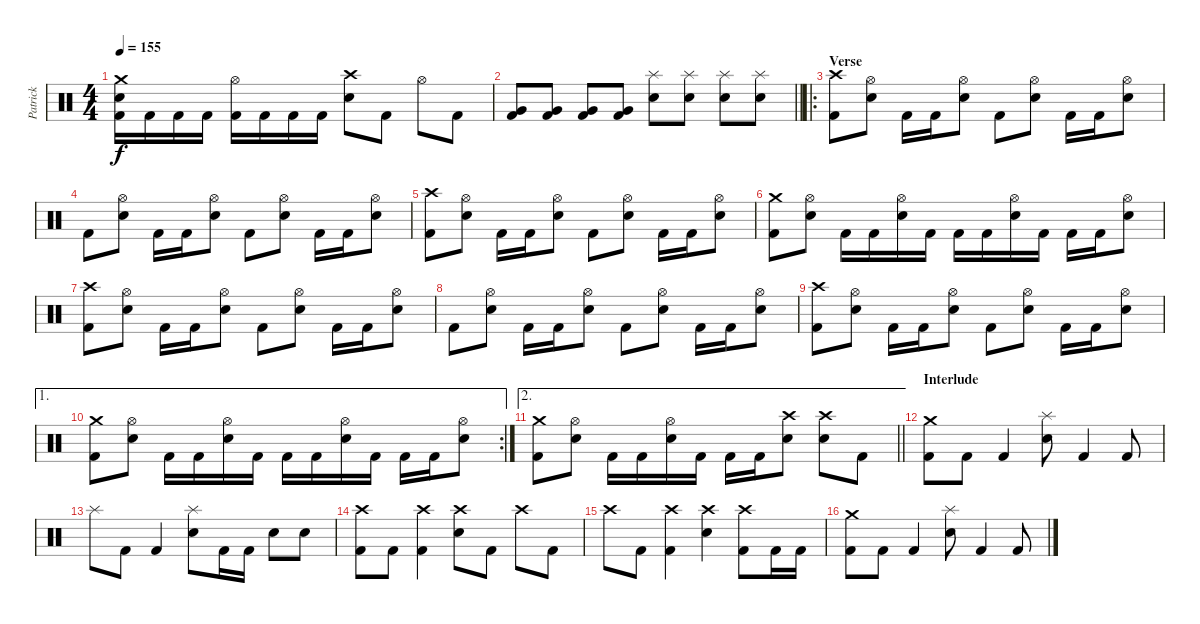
\track ("Patrick" "Patrick") {instrument percussion}
\staff {score}
\articulation defaults
\ts (4 4)
\tempo 155
\clef neutral
\ks c
("Crash medium (hit)" "Electric Snare (hit)" "Kick (hit) 2").16{dy f} "Kick (hit) 2".16 "Kick (hit) 2".16 "Kick (hit) 2".16 ("Hi-Hat (open)" "Kick (hit) 2").16 "Kick (hit) 2".16 "Kick (hit) 2".16 "Kick (hit) 2".16 ("Crash high (hit)" "Electric Snare (hit)").8 "Kick (hit) 2".8 "Hi-Hat (open)".8 "Kick (hit) 2".8 |
\barLineRight lightlight
("Very Low Tom (hit)" "Kick (hit) 2").8 ("Very Low Tom (hit)" "Kick (hit) 2").8 ("Very Low Tom (hit)" "Kick (hit) 2").8 ("Very Low Tom (hit)" "Kick (hit) 2").8 ("Splash (hit)" "Electric Snare (hit)").8 ("Splash (hit)" "Electric Snare (hit)").8 ("Splash (hit)" "Electric Snare (hit)").8 ("Splash (hit)" "Electric Snare (hit)").8 |
\ro
\section ("" "Verse")
("Crash high (hit)" "Kick (hit) 2").8 ("Hi-Hat (open)" "Electric Snare (hit)").8 "Kick (hit) 2".16 "Kick (hit) 2".16 ("Hi-Hat (open)" "Electric Snare (hit)").8 "Kick (hit) 2".8 ("Hi-Hat (open)" "Electric Snare (hit)").8 "Kick (hit) 2".16 "Kick (hit) 2".16 ("Hi-Hat (open)" "Electric Snare (hit)").8 |
"Kick (hit) 2".8 ("Hi-Hat (open)" "Electric Snare (hit)").8 "Kick (hit) 2".16 "Kick (hit) 2".16 ("Hi-Hat (open)" "Electric Snare (hit)").8 "Kick (hit) 2".8 ("Hi-Hat (open)" "Electric Snare (hit)").8 "Kick (hit) 2".16 "Kick (hit) 2".16 ("Hi-Hat (open)" "Electric Snare (hit)").8 |
("Crash high (hit)" "Kick (hit) 2").8 ("Hi-Hat (open)" "Electric Snare (hit)").8 "Kick (hit) 2".16 "Kick (hit) 2".16 ("Hi-Hat (open)" "Electric Snare (hit)").8 "Kick (hit) 2".8 ("Hi-Hat (open)" "Electric Snare (hit)").8 "Kick (hit) 2".16 "Kick (hit) 2".16 ("Hi-Hat (open)" "Electric Snare (hit)").8 |
("Crash medium (hit)" "Kick (hit) 2").8 ("Hi-Hat (open)" "Electric Snare (hit)").8 "Kick (hit) 2".16 "Kick (hit) 2".16 ("Hi-Hat (open)" "Electric Snare (hit)").16 "Kick (hit) 2".16 "Kick (hit) 2".16 "Kick (hit) 2".16 ("Hi-Hat (open)" "Electric Snare (hit)").16 "Kick (hit) 2".16 "Kick (hit) 2".16 "Kick (hit) 2".16 ("Hi-Hat (open)" "Electric Snare (hit)").8 |
("Crash high (hit)" "Kick (hit) 2").8 ("Hi-Hat (open)" "Electric Snare (hit)").8 "Kick (hit) 2".16 "Kick (hit) 2".16 ("Hi-Hat (open)" "Electric Snare (hit)").8 "Kick (hit) 2".8 ("Hi-Hat (open)" "Electric Snare (hit)").8 "Kick (hit) 2".16 "Kick (hit) 2".16 ("Hi-Hat (open)" "Electric Snare (hit)").8 |
"Kick (hit) 2".8 ("Hi-Hat (open)" "Electric Snare (hit)").8 "Kick (hit) 2".16 "Kick (hit) 2".16 ("Hi-Hat (open)" "Electric Snare (hit)").8 "Kick (hit) 2".8 ("Hi-Hat (open)" "Electric Snare (hit)").8 "Kick (hit) 2".16 "Kick (hit) 2".16 ("Hi-Hat (open)" "Electric Snare (hit)").8 |
("Crash high (hit)" "Kick (hit) 2").8 ("Hi-Hat (open)" "Electric Snare (hit)").8 "Kick (hit) 2".16 "Kick (hit) 2".16 ("Hi-Hat (open)" "Electric Snare (hit)").8 "Kick (hit) 2".8 ("Hi-Hat (open)" "Electric Snare (hit)").8 "Kick (hit) 2".16 "Kick (hit) 2".16 ("Hi-Hat (open)" "Electric Snare (hit)").8 |
\ae 1
\rc 2
("Crash medium (hit)" "Kick (hit) 2").8 ("Hi-Hat (open)" "Electric Snare (hit)").8 "Kick (hit) 2".16 "Kick (hit) 2".16 ("Hi-Hat (open)" "Electric Snare (hit)").16 "Kick (hit) 2".16 "Kick (hit) 2".16 "Kick (hit) 2".16 ("Hi-Hat (open)" "Electric Snare (hit)").16 "Kick (hit) 2".16 "Kick (hit) 2".16 "Kick (hit) 2".16 ("Hi-Hat (open)" "Electric Snare (hit)").8 |
\ae 2
\barLineRight lightlight
("Crash medium (hit)" "Kick (hit) 2").8 ("Hi-Hat (open)" "Electric Snare (hit)").8 "Kick (hit) 2".16 "Kick (hit) 2".16 ("Hi-Hat (open)" "Electric Snare (hit)").16 "Kick (hit) 2".16 "Kick (hit) 2".16 "Kick (hit) 2".16 ("Crash high (hit)" "Electric Snare (hit)").8 ("Crash high (hit)" "Electric Snare (hit)").8 "Kick (hit) 2".8 |
\section ("" "Interlude")
("Crash medium (hit)" "Kick (hit) 2").8 "Kick (hit) 2".8 "Kick (hit) 2".4 ("Splash (hit)" "Electric Snare (hit)").8 "Kick (hit) 2".4 "Kick (hit) 2".8 |
"Splash (hit)".8 "Kick (hit) 2".8 "Kick (hit) 2".4 ("Splash (hit)" "Electric Snare (hit)").8 "Kick (hit) 2".16 "Kick (hit) 2".16 "Electric Snare (hit)".8 "Electric Snare (hit)".8 |
("Crash high (hit)" "Kick (hit) 2").8 "Kick (hit) 2".8 ("Crash high (hit)" "Kick (hit) 2").4 ("Crash high (hit)" "Electric Snare (hit)").8 "Kick (hit) 2".8 "Crash high (hit)".8 "Kick (hit) 2".8 |
"Crash high (hit)".8 "Kick (hit) 2".8 ("Crash high (hit)" "Kick (hit) 2").4 ("Crash high (hit)" "Electric Snare (hit)").4 ("Crash high (hit)" "Kick (hit) 2").8 "Kick (hit) 2".16 "Kick (hit) 2".16 |
("Crash medium (hit)" "Kick (hit) 2").8 "Kick (hit) 2".8 "Kick (hit) 2".4 ("Splash (hit)" "Electric Snare (hit)").8 "Kick (hit) 2".4 "Kick (hit) 2".8
